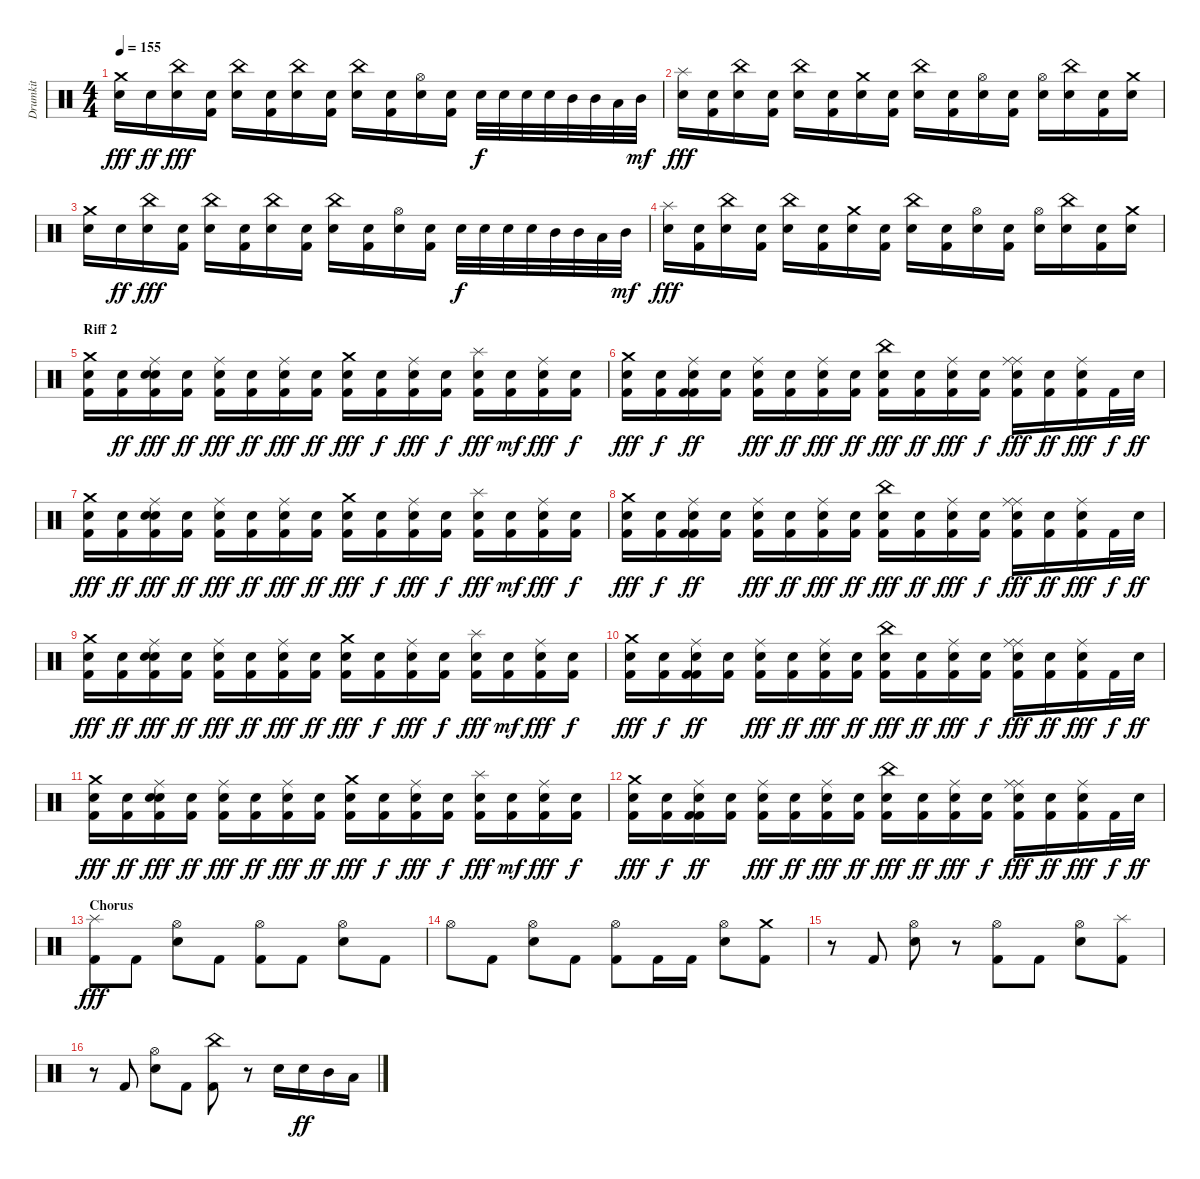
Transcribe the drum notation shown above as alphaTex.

\track ("Drumkit" "Drumkit") {instrument percussion}
\staff {score}
\articulation defaults
\ts (4 4)
\tempo 155
\clef neutral
\ks c
("Snare (hit) 2" "Crash medium (hit)").16{dy fff} "Snare (hit) 2".16{dy ff} ("Snare (hit) 2" "China (hit)").16{dy fff} ("Kick (hit) 2" "Snare (hit) 2").16 ("Snare (hit) 2" "China (hit)").16 ("Kick (hit) 2" "Snare (hit) 2").16 ("Snare (hit) 2" "China (hit)").16 ("Kick (hit) 2" "Snare (hit) 2").16 ("Snare (hit) 2" "China (hit)").16 ("Kick (hit) 2" "Snare (hit) 2").16 ("Snare (hit) 2" "Hi-Hat (open)").16 ("Kick (hit) 2" "Snare (hit) 2").16 "Snare (hit) 2".32{dy f} "Snare (hit) 2".32 "Snare (hit) 2".32 "Snare (hit) 2".32 "Mid Tom (hit)".32 "Mid Tom (hit)".32 "Low Tom (hit)".32 "Mid Tom (hit)".32{dy mf} |
("Snare (hit) 2" "Splash (hit)").16{dy fff} ("Kick (hit) 2" "Snare (hit) 2").16 ("Snare (hit) 2" "China (hit)").16 ("Kick (hit) 2" "Snare (hit) 2").16 ("Snare (hit) 2" "China (hit)").16 ("Kick (hit) 2" "Snare (hit) 2").16 ("Snare (hit) 2" "Crash medium (hit)").16 ("Kick (hit) 2" "Snare (hit) 2").16 ("Snare (hit) 2" "China (hit)").16 ("Kick (hit) 2" "Snare (hit) 2").16 ("Snare (hit) 2" "Hi-Hat (open)").16 ("Kick (hit) 2" "Snare (hit) 2").16 ("Snare (hit) 2" "Hi-Hat (open)").16 ("Snare (hit) 2" "China (hit)").16 ("Kick (hit) 2" "Snare (hit) 2").16 ("Snare (hit) 2" "Crash medium (hit)").16 |
("Snare (hit) 2" "Crash medium (hit)").16 "Snare (hit) 2".16{dy ff} ("Snare (hit) 2" "China (hit)").16{dy fff} ("Kick (hit) 2" "Snare (hit) 2").16 ("Snare (hit) 2" "China (hit)").16 ("Kick (hit) 2" "Snare (hit) 2").16 ("Snare (hit) 2" "China (hit)").16 ("Kick (hit) 2" "Snare (hit) 2").16 ("Snare (hit) 2" "China (hit)").16 ("Kick (hit) 2" "Snare (hit) 2").16 ("Snare (hit) 2" "Hi-Hat (open)").16 ("Kick (hit) 2" "Snare (hit) 2").16 "Snare (hit) 2".32{dy f} "Snare (hit) 2".32 "Snare (hit) 2".32 "Snare (hit) 2".32 "Mid Tom (hit)".32 "Mid Tom (hit)".32 "Low Tom (hit)".32 "Mid Tom (hit)".32{dy mf} |
("Snare (hit) 2" "Splash (hit)").16{dy fff} ("Kick (hit) 2" "Snare (hit) 2").16 ("Snare (hit) 2" "China (hit)").16 ("Kick (hit) 2" "Snare (hit) 2").16 ("Snare (hit) 2" "China (hit)").16 ("Kick (hit) 2" "Snare (hit) 2").16 ("Snare (hit) 2" "Crash medium (hit)").16 ("Kick (hit) 2" "Snare (hit) 2").16 ("Snare (hit) 2" "China (hit)").16 ("Kick (hit) 2" "Snare (hit) 2").16 ("Snare (hit) 2" "Hi-Hat (open)").16 ("Kick (hit) 2" "Snare (hit) 2").16 ("Snare (hit) 2" "Hi-Hat (open)").16 ("Snare (hit) 2" "China (hit)").16 ("Kick (hit) 2" "Snare (hit) 2").16 ("Snare (hit) 2" "Crash medium (hit)").16 |
\section ("" "Riff 2")
("Kick (hit) 2" "Snare (hit) 2" "Crash medium (hit)").16 ("Kick (hit) 2" "Snare (hit) 2").16{dy ff} ("Kick (hit) 2" "Snare (hit) 2" "Snare (hit) 2" "Ride (middle)").16{dy fff} ("Kick (hit) 2" "Snare (hit) 2").16{dy ff} ("Kick (hit) 2" "Snare (hit) 2" "Ride (middle)").16{dy fff} ("Kick (hit) 2" "Snare (hit) 2").16{dy ff} ("Kick (hit) 2" "Snare (hit) 2" "Ride (middle)").16{dy fff} ("Kick (hit) 2" "Snare (hit) 2").16{dy ff} ("Kick (hit) 2" "Snare (hit) 2" "Crash medium (hit)").16{dy fff} ("Kick (hit) 2" "Snare (hit) 2").16{dy f} ("Kick (hit) 2" "Snare (hit) 2" "Ride (middle)").16{dy fff} ("Kick (hit) 2" "Snare (hit) 2").16{dy f} ("Kick (hit) 2" "Snare (hit) 2" "Splash (hit)").16{dy fff} ("Kick (hit) 2" "Snare (hit) 2").16{dy mf} ("Kick (hit) 2" "Snare (hit) 2" "Ride (middle)").16{dy fff} ("Kick (hit) 2" "Snare (hit) 2").16{dy f} |
("Kick (hit) 2" "Snare (hit) 2" "Crash medium (hit)").16{dy fff} ("Kick (hit) 2" "Snare (hit) 2").16{dy f} ("Kick (hit) 2" "Kick (hit) 2" "Snare (hit) 2" "Ride (middle)").16{dy ff} ("Kick (hit) 2" "Snare (hit) 2").16 ("Kick (hit) 2" "Snare (hit) 2" "Ride (middle)").16{dy fff} ("Kick (hit) 2" "Snare (hit) 2").16{dy ff} ("Kick (hit) 2" "Snare (hit) 2" "Ride (middle)").16{dy fff} ("Kick (hit) 2" "Snare (hit) 2").16{dy ff} ("Kick (hit) 2" "Snare (hit) 2" "China (hit)").16{dy fff} ("Kick (hit) 2" "Snare (hit) 2").16{dy ff} ("Kick (hit) 2" "Snare (hit) 2" "Ride (middle)").16{dy fff} ("Kick (hit) 2" "Snare (hit) 2").16{dy f} ("Kick (hit) 2" "Snare (hit) 2" "Ride (middle)" "Ride (middle)").16{dy fff} ("Kick (hit) 2" "Snare (hit) 2").16{dy ff} ("Kick (hit) 2" "Snare (hit) 2" "Ride (middle)").16{dy fff} "Kick (hit) 2".32{dy f} "Snare (hit) 2".32{dy ff} |
("Kick (hit) 2" "Snare (hit) 2" "Crash medium (hit)").16{dy fff} ("Kick (hit) 2" "Snare (hit) 2").16{dy ff} ("Kick (hit) 2" "Snare (hit) 2" "Snare (hit) 2" "Ride (middle)").16{dy fff} ("Kick (hit) 2" "Snare (hit) 2").16{dy ff} ("Kick (hit) 2" "Snare (hit) 2" "Ride (middle)").16{dy fff} ("Kick (hit) 2" "Snare (hit) 2").16{dy ff} ("Kick (hit) 2" "Snare (hit) 2" "Ride (middle)").16{dy fff} ("Kick (hit) 2" "Snare (hit) 2").16{dy ff} ("Kick (hit) 2" "Snare (hit) 2" "Crash medium (hit)").16{dy fff} ("Kick (hit) 2" "Snare (hit) 2").16{dy f} ("Kick (hit) 2" "Snare (hit) 2" "Ride (middle)").16{dy fff} ("Kick (hit) 2" "Snare (hit) 2").16{dy f} ("Kick (hit) 2" "Snare (hit) 2" "Splash (hit)").16{dy fff} ("Kick (hit) 2" "Snare (hit) 2").16{dy mf} ("Kick (hit) 2" "Snare (hit) 2" "Ride (middle)").16{dy fff} ("Kick (hit) 2" "Snare (hit) 2").16{dy f} |
("Kick (hit) 2" "Snare (hit) 2" "Crash medium (hit)").16{dy fff} ("Kick (hit) 2" "Snare (hit) 2").16{dy f} ("Kick (hit) 2" "Kick (hit) 2" "Snare (hit) 2" "Ride (middle)").16{dy ff} ("Kick (hit) 2" "Snare (hit) 2").16 ("Kick (hit) 2" "Snare (hit) 2" "Ride (middle)").16{dy fff} ("Kick (hit) 2" "Snare (hit) 2").16{dy ff} ("Kick (hit) 2" "Snare (hit) 2" "Ride (middle)").16{dy fff} ("Kick (hit) 2" "Snare (hit) 2").16{dy ff} ("Kick (hit) 2" "Snare (hit) 2" "China (hit)").16{dy fff} ("Kick (hit) 2" "Snare (hit) 2").16{dy ff} ("Kick (hit) 2" "Snare (hit) 2" "Ride (middle)").16{dy fff} ("Kick (hit) 2" "Snare (hit) 2").16{dy f} ("Kick (hit) 2" "Snare (hit) 2" "Ride (middle)" "Ride (middle)").16{dy fff} ("Kick (hit) 2" "Snare (hit) 2").16{dy ff} ("Kick (hit) 2" "Snare (hit) 2" "Ride (middle)").16{dy fff} "Kick (hit) 2".32{dy f} "Snare (hit) 2".32{dy ff} |
("Kick (hit) 2" "Snare (hit) 2" "Crash medium (hit)").16{dy fff} ("Kick (hit) 2" "Snare (hit) 2").16{dy ff} ("Kick (hit) 2" "Snare (hit) 2" "Snare (hit) 2" "Ride (middle)").16{dy fff} ("Kick (hit) 2" "Snare (hit) 2").16{dy ff} ("Kick (hit) 2" "Snare (hit) 2" "Ride (middle)").16{dy fff} ("Kick (hit) 2" "Snare (hit) 2").16{dy ff} ("Kick (hit) 2" "Snare (hit) 2" "Ride (middle)").16{dy fff} ("Kick (hit) 2" "Snare (hit) 2").16{dy ff} ("Kick (hit) 2" "Snare (hit) 2" "Crash medium (hit)").16{dy fff} ("Kick (hit) 2" "Snare (hit) 2").16{dy f} ("Kick (hit) 2" "Snare (hit) 2" "Ride (middle)").16{dy fff} ("Kick (hit) 2" "Snare (hit) 2").16{dy f} ("Kick (hit) 2" "Snare (hit) 2" "Splash (hit)").16{dy fff} ("Kick (hit) 2" "Snare (hit) 2").16{dy mf} ("Kick (hit) 2" "Snare (hit) 2" "Ride (middle)").16{dy fff} ("Kick (hit) 2" "Snare (hit) 2").16{dy f} |
("Kick (hit) 2" "Snare (hit) 2" "Crash medium (hit)").16{dy fff} ("Kick (hit) 2" "Snare (hit) 2").16{dy f} ("Kick (hit) 2" "Kick (hit) 2" "Snare (hit) 2" "Ride (middle)").16{dy ff} ("Kick (hit) 2" "Snare (hit) 2").16 ("Kick (hit) 2" "Snare (hit) 2" "Ride (middle)").16{dy fff} ("Kick (hit) 2" "Snare (hit) 2").16{dy ff} ("Kick (hit) 2" "Snare (hit) 2" "Ride (middle)").16{dy fff} ("Kick (hit) 2" "Snare (hit) 2").16{dy ff} ("Kick (hit) 2" "Snare (hit) 2" "China (hit)").16{dy fff} ("Kick (hit) 2" "Snare (hit) 2").16{dy ff} ("Kick (hit) 2" "Snare (hit) 2" "Ride (middle)").16{dy fff} ("Kick (hit) 2" "Snare (hit) 2").16{dy f} ("Kick (hit) 2" "Snare (hit) 2" "Ride (middle)" "Ride (middle)").16{dy fff} ("Kick (hit) 2" "Snare (hit) 2").16{dy ff} ("Kick (hit) 2" "Snare (hit) 2" "Ride (middle)").16{dy fff} "Kick (hit) 2".32{dy f} "Snare (hit) 2".32{dy ff} |
("Kick (hit) 2" "Snare (hit) 2" "Crash medium (hit)").16{dy fff} ("Kick (hit) 2" "Snare (hit) 2").16{dy ff} ("Kick (hit) 2" "Snare (hit) 2" "Snare (hit) 2" "Ride (middle)").16{dy fff} ("Kick (hit) 2" "Snare (hit) 2").16{dy ff} ("Kick (hit) 2" "Snare (hit) 2" "Ride (middle)").16{dy fff} ("Kick (hit) 2" "Snare (hit) 2").16{dy ff} ("Kick (hit) 2" "Snare (hit) 2" "Ride (middle)").16{dy fff} ("Kick (hit) 2" "Snare (hit) 2").16{dy ff} ("Kick (hit) 2" "Snare (hit) 2" "Crash medium (hit)").16{dy fff} ("Kick (hit) 2" "Snare (hit) 2").16{dy f} ("Kick (hit) 2" "Snare (hit) 2" "Ride (middle)").16{dy fff} ("Kick (hit) 2" "Snare (hit) 2").16{dy f} ("Kick (hit) 2" "Snare (hit) 2" "Splash (hit)").16{dy fff} ("Kick (hit) 2" "Snare (hit) 2").16{dy mf} ("Kick (hit) 2" "Snare (hit) 2" "Ride (middle)").16{dy fff} ("Kick (hit) 2" "Snare (hit) 2").16{dy f} |
("Kick (hit) 2" "Snare (hit) 2" "Crash medium (hit)").16{dy fff} ("Kick (hit) 2" "Snare (hit) 2").16{dy f} ("Kick (hit) 2" "Kick (hit) 2" "Snare (hit) 2" "Ride (middle)").16{dy ff} ("Kick (hit) 2" "Snare (hit) 2").16 ("Kick (hit) 2" "Snare (hit) 2" "Ride (middle)").16{dy fff} ("Kick (hit) 2" "Snare (hit) 2").16{dy ff} ("Kick (hit) 2" "Snare (hit) 2" "Ride (middle)").16{dy fff} ("Kick (hit) 2" "Snare (hit) 2").16{dy ff} ("Kick (hit) 2" "Snare (hit) 2" "China (hit)").16{dy fff} ("Kick (hit) 2" "Snare (hit) 2").16{dy ff} ("Kick (hit) 2" "Snare (hit) 2" "Ride (middle)").16{dy fff} ("Kick (hit) 2" "Snare (hit) 2").16{dy f} ("Kick (hit) 2" "Snare (hit) 2" "Ride (middle)" "Ride (middle)").16{dy fff} ("Kick (hit) 2" "Snare (hit) 2").16{dy ff} ("Kick (hit) 2" "Snare (hit) 2" "Ride (middle)").16{dy fff} "Kick (hit) 2".32{dy f} "Snare (hit) 2".32{dy ff} |
\section ("" "Chorus")
("Kick (hit) 2" "Splash (hit)").8{dy fff} "Kick (hit) 2".8 ("Snare (hit) 2" "Hi-Hat (open)").8 "Kick (hit) 2".8 ("Kick (hit) 2" "Hi-Hat (open)").8 "Kick (hit) 2".8 ("Snare (hit) 2" "Hi-Hat (open)").8 "Kick (hit) 2".8 |
"Hi-Hat (open)".8 "Kick (hit) 2".8 ("Snare (hit) 2" "Hi-Hat (open)").8 "Kick (hit) 2".8 ("Kick (hit) 2" "Hi-Hat (open)").8 "Kick (hit) 2".16 "Kick (hit) 2".16 ("Snare (hit) 2" "Hi-Hat (open)").8 ("Kick (hit) 2" "Crash medium (hit)").8 |
r.8 "Kick (hit) 2".8 ("Snare (hit) 2" "Hi-Hat (open)").8 r.8 ("Kick (hit) 2" "Hi-Hat (open)").8 "Kick (hit) 2".8 ("Snare (hit) 2" "Hi-Hat (open)").8 ("Kick (hit) 2" "Splash (hit)").8 |
r.8 "Kick (hit) 2".8 ("Snare (hit) 2" "Hi-Hat (open)").8 "Kick (hit) 2".8 ("Kick (hit) 2" "China (hit)").8 r.8 "Snare (hit) 2".16 "Snare (hit) 2".16{dy ff} "Mid Tom (hit)".16 "Low Tom (hit)".16
